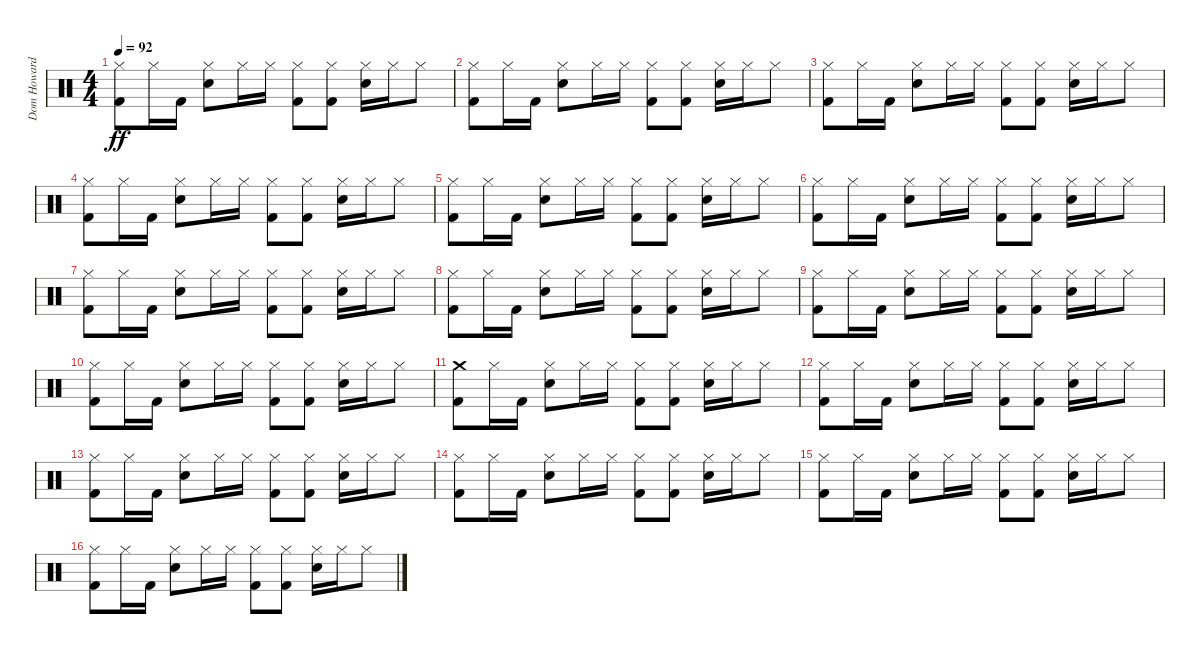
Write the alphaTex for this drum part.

\track ("Dom Howard" "Dom Howard") {instrument percussion}
\staff {score}
\articulation defaults
\ts (4 4)
\tempo 92
\clef neutral
\ks c
("Hi-Hat (closed)" "Kick (hit) 2").8{dy ff} "Hi-Hat (closed)".16 "Kick (hit) 2".16 ("Hi-Hat (closed)" "Electric Snare (hit)").8 "Hi-Hat (closed)".16 "Hi-Hat (closed)".16 ("Hi-Hat (closed)" "Kick (hit) 2").8 ("Hi-Hat (closed)" "Kick (hit) 2").8 ("Hi-Hat (closed)" "Electric Snare (hit)").16 "Hi-Hat (closed)".16 "Hi-Hat (closed)".8 |
("Hi-Hat (closed)" "Kick (hit) 2").8 "Hi-Hat (closed)".16 "Kick (hit) 2".16 ("Hi-Hat (closed)" "Electric Snare (hit)").8 "Hi-Hat (closed)".16 "Hi-Hat (closed)".16 ("Hi-Hat (closed)" "Kick (hit) 2").8 ("Hi-Hat (closed)" "Kick (hit) 2").8 ("Hi-Hat (closed)" "Electric Snare (hit)").16 "Hi-Hat (closed)".16 "Hi-Hat (closed)".8 |
("Hi-Hat (closed)" "Kick (hit) 2").8 "Hi-Hat (closed)".16 "Kick (hit) 2".16 ("Hi-Hat (closed)" "Electric Snare (hit)").8 "Hi-Hat (closed)".16 "Hi-Hat (closed)".16 ("Hi-Hat (closed)" "Kick (hit) 2").8 ("Hi-Hat (closed)" "Kick (hit) 2").8 ("Hi-Hat (closed)" "Electric Snare (hit)").16 "Hi-Hat (closed)".16 "Hi-Hat (closed)".8 |
("Hi-Hat (closed)" "Kick (hit) 2").8 "Hi-Hat (closed)".16 "Kick (hit) 2".16 ("Hi-Hat (closed)" "Electric Snare (hit)").8 "Hi-Hat (closed)".16 "Hi-Hat (closed)".16 ("Hi-Hat (closed)" "Kick (hit) 2").8 ("Hi-Hat (closed)" "Kick (hit) 2").8 ("Hi-Hat (closed)" "Electric Snare (hit)").16 "Hi-Hat (closed)".16 "Hi-Hat (closed)".8 |
("Hi-Hat (closed)" "Kick (hit) 2").8 "Hi-Hat (closed)".16 "Kick (hit) 2".16 ("Hi-Hat (closed)" "Electric Snare (hit)").8 "Hi-Hat (closed)".16 "Hi-Hat (closed)".16 ("Hi-Hat (closed)" "Kick (hit) 2").8 ("Hi-Hat (closed)" "Kick (hit) 2").8 ("Hi-Hat (closed)" "Electric Snare (hit)").16 "Hi-Hat (closed)".16 "Hi-Hat (closed)".8 |
("Hi-Hat (closed)" "Kick (hit) 2").8 "Hi-Hat (closed)".16 "Kick (hit) 2".16 ("Hi-Hat (closed)" "Electric Snare (hit)").8 "Hi-Hat (closed)".16 "Hi-Hat (closed)".16 ("Hi-Hat (closed)" "Kick (hit) 2").8 ("Hi-Hat (closed)" "Kick (hit) 2").8 ("Hi-Hat (closed)" "Electric Snare (hit)").16 "Hi-Hat (closed)".16 "Hi-Hat (closed)".8 |
("Hi-Hat (closed)" "Kick (hit) 2").8 "Hi-Hat (closed)".16 "Kick (hit) 2".16 ("Hi-Hat (closed)" "Electric Snare (hit)").8 "Hi-Hat (closed)".16 "Hi-Hat (closed)".16 ("Hi-Hat (closed)" "Kick (hit) 2").8 ("Hi-Hat (closed)" "Kick (hit) 2").8 ("Hi-Hat (closed)" "Electric Snare (hit)").16 "Hi-Hat (closed)".16 "Hi-Hat (closed)".8 |
("Hi-Hat (closed)" "Kick (hit) 2").8 "Hi-Hat (closed)".16 "Kick (hit) 2".16 ("Hi-Hat (closed)" "Electric Snare (hit)").8 "Hi-Hat (closed)".16 "Hi-Hat (closed)".16 ("Hi-Hat (closed)" "Kick (hit) 2").8 ("Hi-Hat (closed)" "Kick (hit) 2").8 ("Hi-Hat (closed)" "Electric Snare (hit)").16 "Hi-Hat (closed)".16 "Hi-Hat (closed)".8 |
("Hi-Hat (closed)" "Kick (hit) 2").8 "Hi-Hat (closed)".16 "Kick (hit) 2".16 ("Hi-Hat (closed)" "Electric Snare (hit)").8 "Hi-Hat (closed)".16 "Hi-Hat (closed)".16 ("Hi-Hat (closed)" "Kick (hit) 2").8 ("Hi-Hat (closed)" "Kick (hit) 2").8 ("Hi-Hat (closed)" "Electric Snare (hit)").16 "Hi-Hat (closed)".16 "Hi-Hat (closed)".8 |
("Hi-Hat (closed)" "Kick (hit) 2").8 "Hi-Hat (closed)".16 "Kick (hit) 2".16 ("Hi-Hat (closed)" "Electric Snare (hit)").8 "Hi-Hat (closed)".16 "Hi-Hat (closed)".16 ("Hi-Hat (closed)" "Kick (hit) 2").8 ("Hi-Hat (closed)" "Kick (hit) 2").8 ("Hi-Hat (closed)" "Electric Snare (hit)").16 "Hi-Hat (closed)".16 "Hi-Hat (closed)".8 |
("Crash medium (hit)" "Kick (hit) 2").8 "Hi-Hat (closed)".16 "Kick (hit) 2".16 ("Hi-Hat (closed)" "Electric Snare (hit)").8 "Hi-Hat (closed)".16 "Hi-Hat (closed)".16 ("Hi-Hat (closed)" "Kick (hit) 2").8 ("Hi-Hat (closed)" "Kick (hit) 2").8 ("Hi-Hat (closed)" "Electric Snare (hit)").16 "Hi-Hat (closed)".16 "Hi-Hat (closed)".8 |
("Hi-Hat (closed)" "Kick (hit) 2").8 "Hi-Hat (closed)".16 "Kick (hit) 2".16 ("Hi-Hat (closed)" "Electric Snare (hit)").8 "Hi-Hat (closed)".16 "Hi-Hat (closed)".16 ("Hi-Hat (closed)" "Kick (hit) 2").8 ("Hi-Hat (closed)" "Kick (hit) 2").8 ("Hi-Hat (closed)" "Electric Snare (hit)").16 "Hi-Hat (closed)".16 "Hi-Hat (closed)".8 |
("Hi-Hat (closed)" "Kick (hit) 2").8 "Hi-Hat (closed)".16 "Kick (hit) 2".16 ("Hi-Hat (closed)" "Electric Snare (hit)").8 "Hi-Hat (closed)".16 "Hi-Hat (closed)".16 ("Hi-Hat (closed)" "Kick (hit) 2").8 ("Hi-Hat (closed)" "Kick (hit) 2").8 ("Hi-Hat (closed)" "Electric Snare (hit)").16 "Hi-Hat (closed)".16 "Hi-Hat (closed)".8 |
("Hi-Hat (closed)" "Kick (hit) 2").8 "Hi-Hat (closed)".16 "Kick (hit) 2".16 ("Hi-Hat (closed)" "Electric Snare (hit)").8 "Hi-Hat (closed)".16 "Hi-Hat (closed)".16 ("Hi-Hat (closed)" "Kick (hit) 2").8 ("Hi-Hat (closed)" "Kick (hit) 2").8 ("Hi-Hat (closed)" "Electric Snare (hit)").16 "Hi-Hat (closed)".16 "Hi-Hat (closed)".8 |
("Hi-Hat (closed)" "Kick (hit) 2").8 "Hi-Hat (closed)".16 "Kick (hit) 2".16 ("Hi-Hat (closed)" "Electric Snare (hit)").8 "Hi-Hat (closed)".16 "Hi-Hat (closed)".16 ("Hi-Hat (closed)" "Kick (hit) 2").8 ("Hi-Hat (closed)" "Kick (hit) 2").8 ("Hi-Hat (closed)" "Electric Snare (hit)").16 "Hi-Hat (closed)".16 "Hi-Hat (closed)".8 |
("Hi-Hat (closed)" "Kick (hit) 2").8 "Hi-Hat (closed)".16 "Kick (hit) 2".16 ("Hi-Hat (closed)" "Electric Snare (hit)").8 "Hi-Hat (closed)".16 "Hi-Hat (closed)".16 ("Hi-Hat (closed)" "Kick (hit) 2").8 ("Hi-Hat (closed)" "Kick (hit) 2").8 ("Hi-Hat (closed)" "Electric Snare (hit)").16 "Hi-Hat (closed)".16 "Hi-Hat (closed)".8
